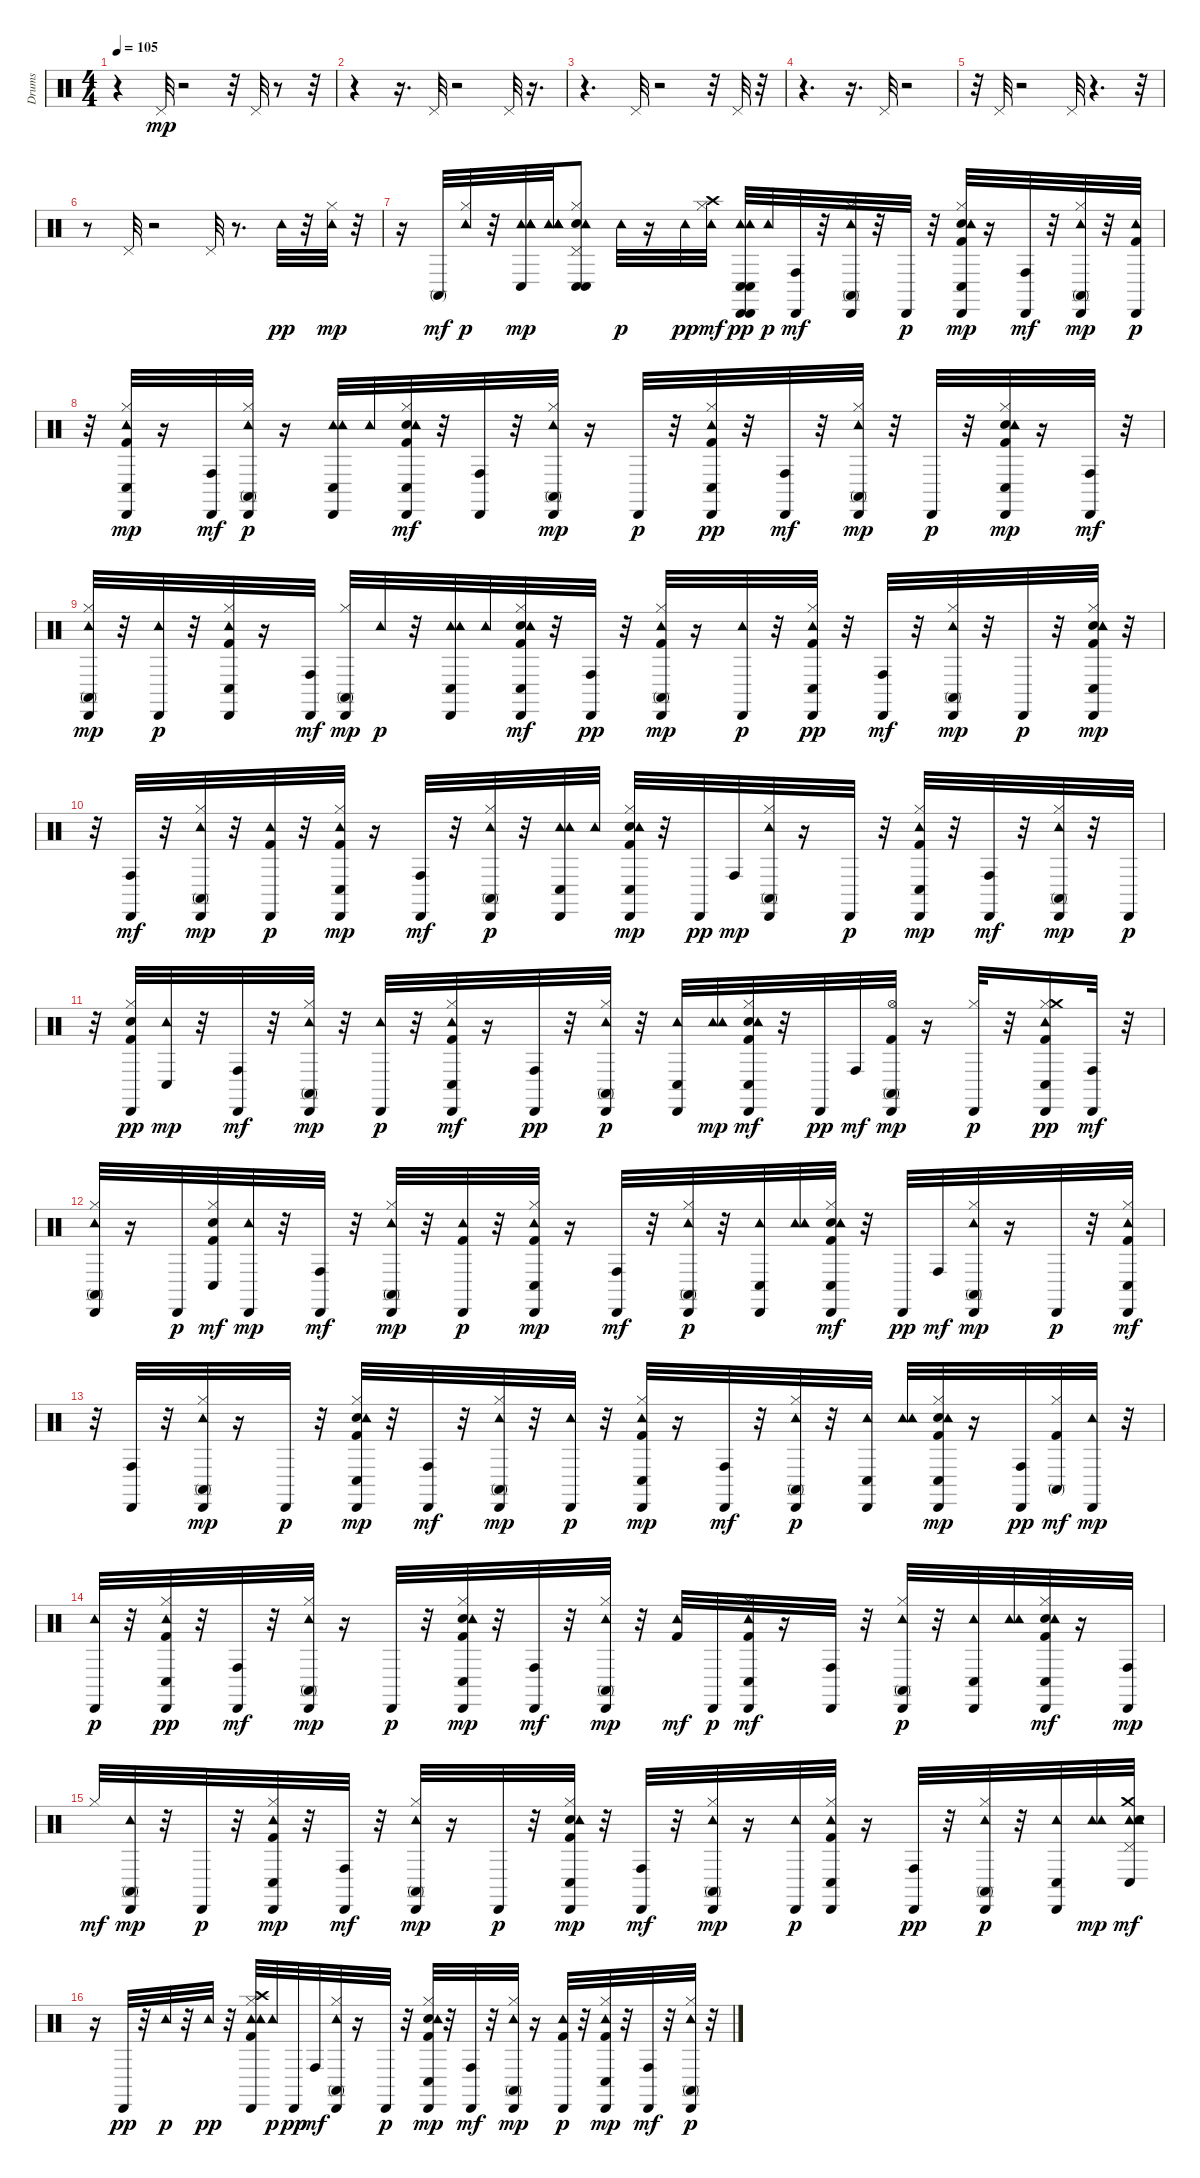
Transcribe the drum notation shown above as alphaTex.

\track ("Drums" "Drums") {instrument percussion}
\staff {score}
\articulation defaults
\ts (4 4)
\tempo 105
\clef neutral
\ks c
r.4{dy mp} "Pedal Hi-Hat (hit)".32 r.2 r.32 "Pedal Hi-Hat (hit)".32 r.8 r.32 |
r.4 r.16{d} "Pedal Hi-Hat (hit)".32 r.2 "Pedal Hi-Hat (hit)".32 r.16{d} |
r.4{d} "Pedal Hi-Hat (hit)".32 r.2 r.32 "Pedal Hi-Hat (hit)".32 r.32 |
r.4{d} r.16{d} "Pedal Hi-Hat (hit)".32 r.2 |
r.32 "Pedal Hi-Hat (hit)".32 r.2 "Pedal Hi-Hat (hit)".32 r.4{d} r.32 |
r.8 "Pedal Hi-Hat (hit)".32 r.2 "Pedal Hi-Hat (hit)".32 r.8{d} "Tambourine (hit)".32{dy pp} r.32 ("Hi-Hat (closed)" "Tambourine (hit)").32{dy mp} r.32 |
r.16 "Conga high (mute)".32{dy mf} ("Hi-Hat (closed)" "Tambourine (hit)").32{dy p} r.32 ("Tambourine (hit)" "Tambourine (hit)" "Conga low (hit)" "Tambourine (hit)" "Tambourine (hit)").32{dy mp} ("Tambourine (hit)" "Tambourine (hit)" "Tambourine (hit)" "Tambourine (hit)").32 ("Snare (hit) 2" "Pedal Hi-Hat (hit)" "Tambourine (hit)" "Conga low (hit)" "Conga low (hit)" "Hi-Hat (closed)").8 "Tambourine (hit)".32{dy p} r.16 "Tambourine (hit)".32{dy pp} ("Tambourine (hit)" "Hi-Hat (closed)" "Crash high (hit)").32{dy mf} ("Tambourine (hit)" "Cabasa (hit)" "Conga low (hit)" "Tambourine (hit)" "Conga low (hit)" "Cabasa (hit)").32{dy pp} "Tambourine (hit)".32{dy p} ("Cabasa (hit)" "Conga high (hit)").32{dy mf} r.32 ("Hi-Hat (closed)" "Tambourine (hit)" "Cabasa (hit)" "Conga high (mute)").32 r.32 "Cabasa (hit)".32{dy p} r.32 ("Kick (hit) 2" "Snare (hit) 2" "Hi-Hat (closed)" "Conga low (hit)" "Cabasa (hit)" "Tambourine (hit)").32{dy mp} r.16 ("Cabasa (hit)" "Conga high (hit)").32{dy mf} r.32 ("Hi-Hat (closed)" "Tambourine (hit)" "Conga high (mute)" "Cabasa (hit)").32{dy mp} r.32 ("Tambourine (hit)" "Kick (hit) 2" "Cabasa (hit)").32{dy p} |
r.32 ("Kick (hit) 2" "Hi-Hat (closed)" "Cabasa (hit)" "Conga low (hit)" "Tambourine (hit)").32{dy mp} r.16 ("Cabasa (hit)" "Conga high (hit)").32{dy mf} ("Hi-Hat (closed)" "Cabasa (hit)" "Tambourine (hit)" "Conga high (mute)").32{dy p} r.16 ("Tambourine (hit)" "Cabasa (hit)" "Conga low (hit)" "Tambourine (hit)").32 "Tambourine (hit)".32 ("Cabasa (hit)" "Kick (hit) 2" "Snare (hit) 2" "Hi-Hat (closed)" "Tambourine (hit)" "Conga low (hit)").32{dy mf} r.32 ("Cabasa (hit)" "Conga high (hit)").32 r.32 ("Hi-Hat (closed)" "Conga high (mute)" "Tambourine (hit)" "Cabasa (hit)").32{dy mp} r.16 "Cabasa (hit)".32{dy p} r.32 ("Conga low (hit)" "Tambourine (hit)" "Kick (hit) 2" "Hi-Hat (closed)" "Cabasa (hit)").32{dy pp} r.32 ("Cabasa (hit)" "Conga high (hit)").32{dy mf} r.32 ("Hi-Hat (closed)" "Tambourine (hit)" "Conga high (mute)" "Cabasa (hit)").32{dy mp} r.32 "Cabasa (hit)".32{dy p} r.32 ("Kick (hit) 2" "Snare (hit) 2" "Hi-Hat (closed)" "Conga low (hit)" "Cabasa (hit)" "Tambourine (hit)").32{dy mp} r.16 ("Cabasa (hit)" "Conga high (hit)").32{dy mf} r.32 |
("Conga high (mute)" "Hi-Hat (closed)" "Tambourine (hit)" "Cabasa (hit)").32{dy mp} r.32 ("Tambourine (hit)" "Cabasa (hit)").32{dy p} r.32 ("Conga low (hit)" "Kick (hit) 2" "Hi-Hat (closed)" "Tambourine (hit)" "Cabasa (hit)").32 r.16 ("Cabasa (hit)" "Conga high (hit)").32{dy mf} ("Hi-Hat (closed)" "Cabasa (hit)" "Conga high (mute)").32{dy mp} "Tambourine (hit)".32{dy p} r.32 ("Tambourine (hit)" "Cabasa (hit)" "Conga low (hit)" "Tambourine (hit)").32 "Tambourine (hit)".32 ("Cabasa (hit)" "Kick (hit) 2" "Snare (hit) 2" "Hi-Hat (closed)" "Tambourine (hit)" "Conga low (hit)").32{dy mf} r.32 ("Conga high (hit)" "Cabasa (hit)").32{dy pp} r.32 ("Conga high (mute)" "Kick (hit) 2" "Hi-Hat (closed)" "Tambourine (hit)" "Cabasa (hit)").32{dy mp} r.16 ("Tambourine (hit)" "Cabasa (hit)").32{dy p} r.32 ("Kick (hit) 2" "Hi-Hat (closed)" "Conga low (hit)" "Tambourine (hit)" "Cabasa (hit)").32{dy pp} r.32 ("Cabasa (hit)" "Conga high (hit)").32{dy mf} r.32 ("Hi-Hat (closed)" "Tambourine (hit)" "Conga high (mute)" "Cabasa (hit)").32{dy mp} r.32 "Cabasa (hit)".32{dy p} r.32 ("Kick (hit) 2" "Snare (hit) 2" "Hi-Hat (closed)" "Cabasa (hit)" "Tambourine (hit)" "Conga low (hit)").32{dy mp} r.32 |
r.32 ("Cabasa (hit)" "Conga high (hit)").32{dy mf} r.32 ("Tambourine (hit)" "Hi-Hat (closed)" "Cabasa (hit)" "Conga high (mute)").32{dy mp} r.32 ("Tambourine (hit)" "Kick (hit) 2" "Cabasa (hit)").32{dy p} r.32 ("Conga low (hit)" "Kick (hit) 2" "Hi-Hat (closed)" "Cabasa (hit)" "Tambourine (hit)").32{dy mp} r.16 ("Cabasa (hit)" "Conga high (hit)").32{dy mf} r.32 ("Hi-Hat (closed)" "Cabasa (hit)" "Conga high (mute)" "Tambourine (hit)").32{dy p} r.32 ("Tambourine (hit)" "Cabasa (hit)" "Conga low (hit)" "Tambourine (hit)").32 "Tambourine (hit)".32 ("Conga low (hit)" "Cabasa (hit)" "Kick (hit) 2" "Snare (hit) 2" "Hi-Hat (closed)" "Tambourine (hit)").32{dy mp} r.32 "Cabasa (hit)".32{dy pp} "Conga high (hit)".32{dy mp} ("Hi-Hat (closed)" "Tambourine (hit)" "Conga high (mute)" "Cabasa (hit)").32 r.16 "Cabasa (hit)".32{dy p} r.32 ("Kick (hit) 2" "Hi-Hat (closed)" "Conga low (hit)" "Cabasa (hit)" "Tambourine (hit)").32{dy mp} r.32 ("Cabasa (hit)" "Conga high (hit)").32{dy mf} r.32 ("Conga high (mute)" "Hi-Hat (closed)" "Tambourine (hit)" "Cabasa (hit)").32{dy mp} r.32 "Cabasa (hit)".32{dy p} |
r.32 ("Kick (hit) 2" "Snare (hit) 2" "Hi-Hat (closed)" "Cabasa (hit)").32{dy pp} ("Tambourine (hit)" "Conga low (hit)").32{dy mp} r.32 ("Cabasa (hit)" "Conga high (hit)").32{dy mf} r.32 ("Hi-Hat (closed)" "Tambourine (hit)" "Cabasa (hit)" "Conga high (mute)").32{dy mp} r.32 ("Tambourine (hit)" "Cabasa (hit)").32{dy p} r.32 ("Kick (hit) 2" "Hi-Hat (closed)" "Tambourine (hit)" "Cabasa (hit)" "Conga low (hit)").32{dy mf} r.16 ("Conga high (hit)" "Cabasa (hit)").32{dy pp} r.32 ("Conga high (mute)" "Hi-Hat (closed)" "Cabasa (hit)" "Tambourine (hit)").32{dy p} r.32 ("Tambourine (hit)" "Cabasa (hit)" "Conga low (hit)").32 ("Tambourine (hit)" "Tambourine (hit)").32{dy mp} ("Cabasa (hit)" "Kick (hit) 2" "Snare (hit) 2" "Hi-Hat (closed)" "Conga low (hit)" "Tambourine (hit)").32{dy mf} r.32 "Cabasa (hit)".32{dy pp} "Conga high (hit)".32{dy mf} ("Kick (hit) 2" "Hi-Hat (open)" "Conga high (mute)" "Cabasa (hit)").32{dy mp} r.16 ("Cabasa (hit)" "Hi-Hat (closed)").32{dy p} r.32 ("Kick (hit) 2" "Hi-Hat (closed)" "Crash medium (hit)" "Conga low (hit)" "Tambourine (hit)" "Cabasa (hit)").16{dy pp} ("Cabasa (hit)" "Conga high (hit)").32{dy mf} r.32 |
("Hi-Hat (closed)" "Tambourine (hit)" "Cabasa (hit)" "Conga high (mute)").32 r.16 "Cabasa (hit)".32{dy p} ("Conga low (hit)" "Kick (hit) 2" "Snare (hit) 2" "Hi-Hat (closed)").32{dy mf} ("Cabasa (hit)" "Tambourine (hit)").32{dy mp} r.32 ("Cabasa (hit)" "Conga high (hit)").32{dy mf} r.32 ("Hi-Hat (closed)" "Tambourine (hit)" "Conga high (mute)" "Cabasa (hit)").32{dy mp} r.32 ("Tambourine (hit)" "Kick (hit) 2" "Cabasa (hit)").32{dy p} r.32 ("Kick (hit) 2" "Hi-Hat (closed)" "Cabasa (hit)" "Conga low (hit)" "Tambourine (hit)").32{dy mp} r.16 ("Cabasa (hit)" "Conga high (hit)").32{dy mf} r.32 ("Hi-Hat (closed)" "Cabasa (hit)" "Tambourine (hit)" "Conga high (mute)").32{dy p} r.32 ("Tambourine (hit)" "Conga low (hit)" "Cabasa (hit)").32 ("Tambourine (hit)" "Tambourine (hit)").32 ("Cabasa (hit)" "Kick (hit) 2" "Snare (hit) 2" "Hi-Hat (closed)" "Tambourine (hit)" "Conga low (hit)").32{dy mf} r.32 "Cabasa (hit)".32{dy pp} "Conga high (hit)".32{dy mf} ("Hi-Hat (closed)" "Conga high (mute)" "Tambourine (hit)" "Cabasa (hit)").32{dy mp} r.16 "Cabasa (hit)".32{dy p} r.32 ("Tambourine (hit)" "Kick (hit) 2" "Hi-Hat (closed)" "Cabasa (hit)" "Conga low (hit)").32{dy mf} |
r.32 ("Cabasa (hit)" "Conga high (hit)").32 r.32 ("Hi-Hat (closed)" "Tambourine (hit)" "Conga high (mute)" "Cabasa (hit)").32{dy mp} r.16 "Cabasa (hit)".32{dy p} r.32 ("Kick (hit) 2" "Snare (hit) 2" "Hi-Hat (closed)" "Conga low (hit)" "Cabasa (hit)" "Tambourine (hit)").32{dy mp} r.32 ("Cabasa (hit)" "Conga high (hit)").32{dy mf} r.32 ("Conga high (mute)" "Hi-Hat (closed)" "Tambourine (hit)" "Cabasa (hit)").32{dy mp} r.32 ("Tambourine (hit)" "Cabasa (hit)").32{dy p} r.32 ("Kick (hit) 2" "Hi-Hat (closed)" "Tambourine (hit)" "Cabasa (hit)" "Conga low (hit)").32{dy mp} r.16 ("Cabasa (hit)" "Conga high (hit)").32{dy mf} r.32 ("Hi-Hat (closed)" "Cabasa (hit)" "Conga high (mute)" "Tambourine (hit)").32{dy p} r.32 ("Tambourine (hit)" "Conga low (hit)" "Cabasa (hit)").32 ("Tambourine (hit)" "Tambourine (hit)").32 ("Cabasa (hit)" "Kick (hit) 2" "Snare (hit) 2" "Hi-Hat (closed)" "Tambourine (hit)" "Conga low (hit)").32{dy mp} r.16 ("Conga high (hit)" "Cabasa (hit)").32{dy pp} ("Conga high (mute)" "Kick (hit) 2" "Hi-Hat (closed)").32{dy mf} ("Tambourine (hit)" "Cabasa (hit)").32{dy mp} r.32 |
("Tambourine (hit)" "Cabasa (hit)").32{dy p} r.32 ("Conga low (hit)" "Kick (hit) 2" "Hi-Hat (closed)" "Tambourine (hit)" "Cabasa (hit)").32{dy pp} r.32 ("Cabasa (hit)" "Conga high (hit)").32{dy mf} r.32 ("Hi-Hat (closed)" "Tambourine (hit)" "Conga high (mute)" "Cabasa (hit)").32{dy mp} r.16 "Cabasa (hit)".32{dy p} r.32 ("Kick (hit) 2" "Snare (hit) 2" "Hi-Hat (closed)" "Conga low (hit)" "Cabasa (hit)" "Tambourine (hit)").32{dy mp} r.32 ("Cabasa (hit)" "Conga high (hit)").32{dy mf} r.32 ("Tambourine (hit)" "Hi-Hat (closed)" "Cabasa (hit)" "Conga high (mute)").32{dy mp} r.32 ("Tambourine (hit)" "Kick (hit) 2").32{dy mf} "Cabasa (hit)".32{dy p} ("Kick (hit) 2" "Hi-Hat (closed)" "Cabasa (hit)" "Tambourine (hit)" "Conga low (hit)").32{dy mf} r.16 ("Cabasa (hit)" "Conga high (hit)").32 r.32 ("Hi-Hat (closed)" "Cabasa (hit)" "Conga high (mute)" "Tambourine (hit)").32{dy p} r.32 ("Tambourine (hit)" "Cabasa (hit)" "Conga low (hit)").32 ("Tambourine (hit)" "Tambourine (hit)").32 ("Cabasa (hit)" "Kick (hit) 2" "Snare (hit) 2" "Hi-Hat (closed)" "Tambourine (hit)" "Conga low (hit)").32{dy mf} r.16 ("Cabasa (hit)" "Conga high (hit)").32{dy mp} |
"Hi-Hat (closed)".32{dy mf} ("Tambourine (hit)" "Conga high (mute)" "Cabasa (hit)").32{dy mp} r.32 "Cabasa (hit)".32{dy p} r.32 ("Kick (hit) 2" "Hi-Hat (closed)" "Conga low (hit)" "Cabasa (hit)" "Tambourine (hit)").32{dy mp} r.32 ("Cabasa (hit)" "Conga high (hit)").32{dy mf} r.32 ("Conga high (mute)" "Hi-Hat (closed)" "Tambourine (hit)" "Cabasa (hit)").32{dy mp} r.16 "Cabasa (hit)".32{dy p} r.32 ("Kick (hit) 2" "Snare (hit) 2" "Hi-Hat (closed)" "Cabasa (hit)" "Conga low (hit)" "Tambourine (hit)").32{dy mp} r.32 ("Cabasa (hit)" "Conga high (hit)").32{dy mf} r.32 ("Hi-Hat (closed)" "Tambourine (hit)" "Cabasa (hit)" "Conga high (mute)").32{dy mp} r.16 ("Tambourine (hit)" "Cabasa (hit)").32{dy p} ("Conga low (hit)" "Kick (hit) 2" "Hi-Hat (closed)" "Tambourine (hit)" "Cabasa (hit)").32 r.16 ("Conga high (hit)" "Cabasa (hit)").32{dy pp} r.32 ("Conga high (mute)" "Hi-Hat (closed)" "Cabasa (hit)" "Tambourine (hit)").32{dy p} r.32 ("Tambourine (hit)" "Cabasa (hit)" "Conga low (hit)").32 ("Tambourine (hit)" "Tambourine (hit)").32{dy mp} ("Tambourine (hit)" "Tambourine (hit)" "Crash medium (hit)" "Conga low (hit)" "Pedal Hi-Hat (hit)" "Hand Clap (hit)").32{dy mf} |
r.16 "Cabasa (hit)".32{dy pp} r.32 "Tambourine (hit)".32{dy p} r.32 "Tambourine (hit)".32{dy pp} r.32 ("Tambourine (hit)" "Kick (hit) 2" "Hi-Hat (closed)" "Crash high (hit)" "Tambourine (hit)" "Cabasa (hit)").32 "Tambourine (hit)".32{dy p} "Cabasa (hit)".32{dy pp} "Conga high (hit)".32{dy mf} ("Hi-Hat (closed)" "Tambourine (hit)" "Cabasa (hit)" "Conga high (mute)").32 r.16 "Cabasa (hit)".32{dy p} r.32 ("Kick (hit) 2" "Snare (hit) 2" "Hi-Hat (closed)" "Conga low (hit)" "Cabasa (hit)" "Tambourine (hit)").32{dy mp} r.32 ("Cabasa (hit)" "Conga high (hit)").32{dy mf} r.32 ("Hi-Hat (closed)" "Tambourine (hit)" "Conga high (mute)" "Cabasa (hit)").32{dy mp} r.16 ("Tambourine (hit)" "Kick (hit) 2" "Cabasa (hit)").32{dy p} r.32 ("Kick (hit) 2" "Hi-Hat (closed)" "Cabasa (hit)" "Conga low (hit)" "Tambourine (hit)").32{dy mp} r.32 ("Cabasa (hit)" "Conga high (hit)").32{dy mf} r.32 ("Hi-Hat (closed)" "Cabasa (hit)" "Tambourine (hit)" "Conga high (mute)").32{dy p} r.32
